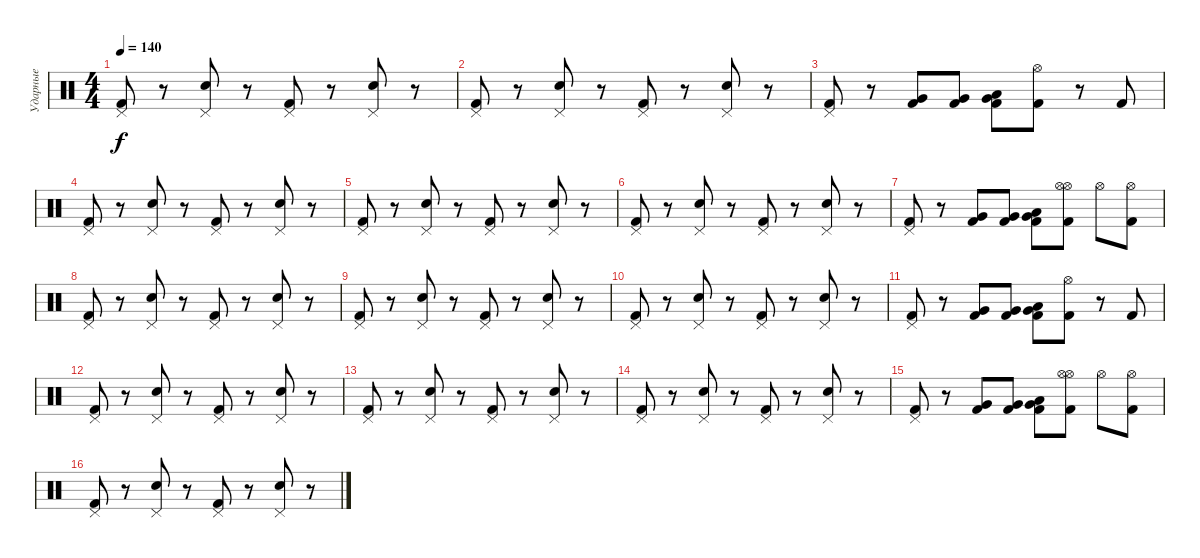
\track ("Ударные" "Ударные") {instrument percussion}
\staff
\articulation defaults
\ts (4 4)
\tempo 140
\clef neutral
\ks c
("Pedal Hi-Hat (hit)" "Kick (hit) 2").8{dy f} r.8 ("Pedal Hi-Hat (hit)" "Snare (hit) 2").8 r.8 ("Pedal Hi-Hat (hit)" "Kick (hit) 2").8 r.8 ("Pedal Hi-Hat (hit)" "Snare (hit) 2").8 r.8 |
("Pedal Hi-Hat (hit)" "Kick (hit) 2").8 r.8 ("Pedal Hi-Hat (hit)" "Snare (hit) 2").8 r.8 ("Pedal Hi-Hat (hit)" "Kick (hit) 2").8 r.8 ("Pedal Hi-Hat (hit)" "Snare (hit) 2").8 r.8 |
("Pedal Hi-Hat (hit)" "Kick (hit) 2").8 r.8 ("Very Low Tom (hit)" "Kick (hit) 2").8 ("Very Low Tom (hit)" "Kick (hit) 2").8 ("Very Low Tom (hit)" "Low Tom (hit)" "Kick (hit) 2").8 ("Hi-Hat (open)" "Kick (hit) 2").8 r.8 "Kick (hit) 2".8 |
("Pedal Hi-Hat (hit)" "Kick (hit) 2").8 r.8 ("Pedal Hi-Hat (hit)" "Snare (hit) 2").8 r.8 ("Pedal Hi-Hat (hit)" "Kick (hit) 2").8 r.8 ("Pedal Hi-Hat (hit)" "Snare (hit) 2").8 r.8 |
("Pedal Hi-Hat (hit)" "Kick (hit) 2").8 r.8 ("Pedal Hi-Hat (hit)" "Snare (hit) 2").8 r.8 ("Pedal Hi-Hat (hit)" "Kick (hit) 2").8 r.8 ("Pedal Hi-Hat (hit)" "Snare (hit) 2").8 r.8 |
("Pedal Hi-Hat (hit)" "Kick (hit) 2").8 r.8 ("Pedal Hi-Hat (hit)" "Snare (hit) 2").8 r.8 ("Pedal Hi-Hat (hit)" "Kick (hit) 2").8 r.8 ("Pedal Hi-Hat (hit)" "Snare (hit) 2").8 r.8 |
("Pedal Hi-Hat (hit)" "Kick (hit) 2").8 r.8 ("Very Low Tom (hit)" "Kick (hit) 2").8 ("Very Low Tom (hit)" "Kick (hit) 2").8 ("Very Low Tom (hit)" "Low Tom (hit)" "Kick (hit) 2").8 ("Hi-Hat (open)" "Hi-Hat (open)" "Kick (hit) 2").8 "Hi-Hat (open)".8 ("Hi-Hat (open)" "Kick (hit) 2").8 |
("Pedal Hi-Hat (hit)" "Kick (hit) 2").8 r.8 ("Pedal Hi-Hat (hit)" "Snare (hit) 2").8 r.8 ("Pedal Hi-Hat (hit)" "Kick (hit) 2").8 r.8 ("Pedal Hi-Hat (hit)" "Snare (hit) 2").8 r.8 |
("Pedal Hi-Hat (hit)" "Kick (hit) 2").8 r.8 ("Pedal Hi-Hat (hit)" "Snare (hit) 2").8 r.8 ("Pedal Hi-Hat (hit)" "Kick (hit) 2").8 r.8 ("Pedal Hi-Hat (hit)" "Snare (hit) 2").8 r.8 |
("Pedal Hi-Hat (hit)" "Kick (hit) 2").8 r.8 ("Pedal Hi-Hat (hit)" "Snare (hit) 2").8 r.8 ("Pedal Hi-Hat (hit)" "Kick (hit) 2").8 r.8 ("Pedal Hi-Hat (hit)" "Snare (hit) 2").8 r.8 |
("Pedal Hi-Hat (hit)" "Kick (hit) 2").8 r.8 ("Very Low Tom (hit)" "Kick (hit) 2").8 ("Very Low Tom (hit)" "Kick (hit) 2").8 ("Very Low Tom (hit)" "Low Tom (hit)" "Kick (hit) 2").8 ("Hi-Hat (open)" "Kick (hit) 2").8 r.8 "Kick (hit) 2".8 |
("Pedal Hi-Hat (hit)" "Kick (hit) 2").8 r.8 ("Pedal Hi-Hat (hit)" "Snare (hit) 2").8 r.8 ("Pedal Hi-Hat (hit)" "Kick (hit) 2").8 r.8 ("Pedal Hi-Hat (hit)" "Snare (hit) 2").8 r.8 |
("Pedal Hi-Hat (hit)" "Kick (hit) 2").8 r.8 ("Pedal Hi-Hat (hit)" "Snare (hit) 2").8 r.8 ("Pedal Hi-Hat (hit)" "Kick (hit) 2").8 r.8 ("Pedal Hi-Hat (hit)" "Snare (hit) 2").8 r.8 |
("Pedal Hi-Hat (hit)" "Kick (hit) 2").8 r.8 ("Pedal Hi-Hat (hit)" "Snare (hit) 2").8 r.8 ("Pedal Hi-Hat (hit)" "Kick (hit) 2").8 r.8 ("Pedal Hi-Hat (hit)" "Snare (hit) 2").8 r.8 |
("Pedal Hi-Hat (hit)" "Kick (hit) 2").8 r.8 ("Very Low Tom (hit)" "Kick (hit) 2").8 ("Very Low Tom (hit)" "Kick (hit) 2").8 ("Very Low Tom (hit)" "Low Tom (hit)" "Kick (hit) 2").8 ("Hi-Hat (open)" "Hi-Hat (open)" "Kick (hit) 2").8 "Hi-Hat (open)".8 ("Hi-Hat (open)" "Kick (hit) 2").8 |
("Pedal Hi-Hat (hit)" "Kick (hit) 2").8 r.8 ("Pedal Hi-Hat (hit)" "Snare (hit) 2").8 r.8 ("Pedal Hi-Hat (hit)" "Kick (hit) 2").8 r.8 ("Pedal Hi-Hat (hit)" "Snare (hit) 2").8 r.8
